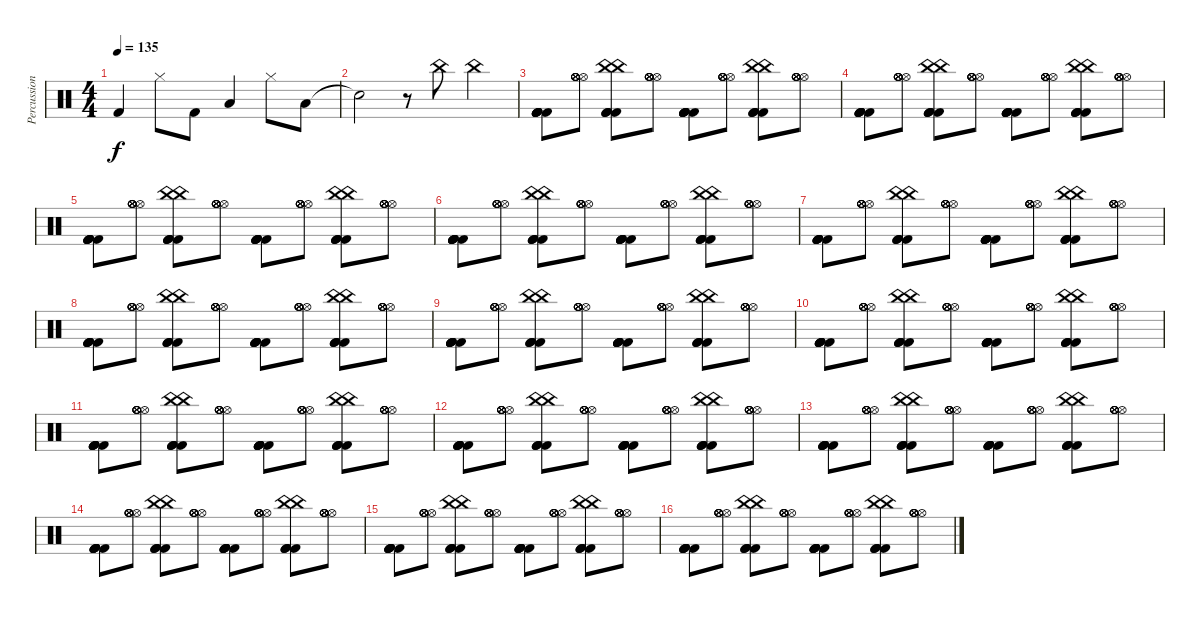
\track ("Percussion" "Percussion") {instrument percussion}
\staff {score}
\articulation defaults
\ts (4 4)
\tempo 135
\clef neutral
\ks c "Kick (hit) 2".4{dy f} "Hi-Hat (closed)".8 "Kick (hit) 2".8 "Low Tom (hit)".4 "Hi-Hat (closed)".8 "Low Floor Tom (hit)".8
|
"Snare (hit)"{t}.2 r.8 "China (hit)".8 "China (hit)".4 |
("Kick (hit) 2" "Kick (hit) 2" "Kick (hit) 2" "Kick (hit) 2" "Kick (hit) 2" "Kick (hit) 2").8 ("Hi-Hat (open)" "Hi-Hat (open)" "Hi-Hat (open)" "Hi-Hat (open)" "Hi-Hat (open)" "Hi-Hat (open)").8 ("China (hit)" "China (hit)" "Kick (hit) 2" "Kick (hit) 2" "Kick (hit) 2" "Kick (hit) 2").8 ("Hi-Hat (open)" "Hi-Hat (open)" "Hi-Hat (open)" "Hi-Hat (open)" "Hi-Hat (open)" "Hi-Hat (open)").8 ("Kick (hit) 2" "Kick (hit) 2" "Kick (hit) 2" "Kick (hit) 2" "Kick (hit) 2" "Kick (hit) 2").8 ("Hi-Hat (open)" "Hi-Hat (open)" "Hi-Hat (open)" "Hi-Hat (open)" "Hi-Hat (open)" "Hi-Hat (open)").8 ("China (hit)" "China (hit)" "Kick (hit) 2" "Kick (hit) 2" "Kick (hit) 2" "Kick (hit) 2").8 ("Hi-Hat (open)" "Hi-Hat (open)" "Hi-Hat (open)" "Hi-Hat (open)" "Hi-Hat (open)" "Hi-Hat (open)").8 |
("Kick (hit) 2" "Kick (hit) 2" "Kick (hit) 2" "Kick (hit) 2" "Kick (hit) 2" "Kick (hit) 2").8 ("Hi-Hat (open)" "Hi-Hat (open)" "Hi-Hat (open)" "Hi-Hat (open)" "Hi-Hat (open)" "Hi-Hat (open)").8 ("China (hit)" "China (hit)" "Kick (hit) 2" "Kick (hit) 2" "Kick (hit) 2" "Kick (hit) 2").8 ("Hi-Hat (open)" "Hi-Hat (open)" "Hi-Hat (open)" "Hi-Hat (open)" "Hi-Hat (open)" "Hi-Hat (open)").8 ("Kick (hit) 2" "Kick (hit) 2" "Kick (hit) 2" "Kick (hit) 2" "Kick (hit) 2" "Kick (hit) 2").8 ("Hi-Hat (open)" "Hi-Hat (open)" "Hi-Hat (open)" "Hi-Hat (open)" "Hi-Hat (open)" "Hi-Hat (open)").8 ("China (hit)" "China (hit)" "Kick (hit) 2" "Kick (hit) 2" "Kick (hit) 2" "Kick (hit) 2").8 ("Hi-Hat (open)" "Hi-Hat (open)" "Hi-Hat (open)" "Hi-Hat (open)" "Hi-Hat (open)" "Hi-Hat (open)").8 |
("Kick (hit) 2" "Kick (hit) 2" "Kick (hit) 2" "Kick (hit) 2" "Kick (hit) 2" "Kick (hit) 2").8 ("Hi-Hat (open)" "Hi-Hat (open)" "Hi-Hat (open)" "Hi-Hat (open)" "Hi-Hat (open)" "Hi-Hat (open)").8 ("China (hit)" "China (hit)" "Kick (hit) 2" "Kick (hit) 2" "Kick (hit) 2" "Kick (hit) 2").8 ("Hi-Hat (open)" "Hi-Hat (open)" "Hi-Hat (open)" "Hi-Hat (open)" "Hi-Hat (open)" "Hi-Hat (open)").8 ("Kick (hit) 2" "Kick (hit) 2" "Kick (hit) 2" "Kick (hit) 2" "Kick (hit) 2" "Kick (hit) 2").8 ("Hi-Hat (open)" "Hi-Hat (open)" "Hi-Hat (open)" "Hi-Hat (open)" "Hi-Hat (open)" "Hi-Hat (open)").8 ("China (hit)" "China (hit)" "Kick (hit) 2" "Kick (hit) 2" "Kick (hit) 2" "Kick (hit) 2").8 ("Hi-Hat (open)" "Hi-Hat (open)" "Hi-Hat (open)" "Hi-Hat (open)" "Hi-Hat (open)" "Hi-Hat (open)").8 |
("Kick (hit) 2" "Kick (hit) 2" "Kick (hit) 2" "Kick (hit) 2" "Kick (hit) 2" "Kick (hit) 2").8 ("Hi-Hat (open)" "Hi-Hat (open)" "Hi-Hat (open)" "Hi-Hat (open)" "Hi-Hat (open)" "Hi-Hat (open)").8 ("China (hit)" "China (hit)" "Kick (hit) 2" "Kick (hit) 2" "Kick (hit) 2" "Kick (hit) 2").8 ("Hi-Hat (open)" "Hi-Hat (open)" "Hi-Hat (open)" "Hi-Hat (open)" "Hi-Hat (open)" "Hi-Hat (open)").8 ("Kick (hit) 2" "Kick (hit) 2" "Kick (hit) 2" "Kick (hit) 2" "Kick (hit) 2" "Kick (hit) 2").8 ("Hi-Hat (open)" "Hi-Hat (open)" "Hi-Hat (open)" "Hi-Hat (open)" "Hi-Hat (open)" "Hi-Hat (open)").8 ("China (hit)" "China (hit)" "Kick (hit) 2" "Kick (hit) 2" "Kick (hit) 2" "Kick (hit) 2").8 ("Hi-Hat (open)" "Hi-Hat (open)" "Hi-Hat (open)" "Hi-Hat (open)" "Hi-Hat (open)" "Hi-Hat (open)").8 |
("Kick (hit) 2" "Kick (hit) 2" "Kick (hit) 2" "Kick (hit) 2" "Kick (hit) 2" "Kick (hit) 2").8 ("Hi-Hat (open)" "Hi-Hat (open)" "Hi-Hat (open)" "Hi-Hat (open)" "Hi-Hat (open)" "Hi-Hat (open)").8 ("China (hit)" "China (hit)" "Kick (hit) 2" "Kick (hit) 2" "Kick (hit) 2" "Kick (hit) 2").8 ("Hi-Hat (open)" "Hi-Hat (open)" "Hi-Hat (open)" "Hi-Hat (open)" "Hi-Hat (open)" "Hi-Hat (open)").8 ("Kick (hit) 2" "Kick (hit) 2" "Kick (hit) 2" "Kick (hit) 2" "Kick (hit) 2" "Kick (hit) 2").8 ("Hi-Hat (open)" "Hi-Hat (open)" "Hi-Hat (open)" "Hi-Hat (open)" "Hi-Hat (open)" "Hi-Hat (open)").8 ("China (hit)" "China (hit)" "Kick (hit) 2" "Kick (hit) 2" "Kick (hit) 2" "Kick (hit) 2").8 ("Hi-Hat (open)" "Hi-Hat (open)" "Hi-Hat (open)" "Hi-Hat (open)" "Hi-Hat (open)" "Hi-Hat (open)").8 |
("Kick (hit) 2" "Kick (hit) 2" "Kick (hit) 2" "Kick (hit) 2" "Kick (hit) 2" "Kick (hit) 2").8 ("Hi-Hat (open)" "Hi-Hat (open)" "Hi-Hat (open)" "Hi-Hat (open)" "Hi-Hat (open)" "Hi-Hat (open)").8 ("China (hit)" "China (hit)" "Kick (hit) 2" "Kick (hit) 2" "Kick (hit) 2" "Kick (hit) 2").8 ("Hi-Hat (open)" "Hi-Hat (open)" "Hi-Hat (open)" "Hi-Hat (open)" "Hi-Hat (open)" "Hi-Hat (open)").8 ("Kick (hit) 2" "Kick (hit) 2" "Kick (hit) 2" "Kick (hit) 2" "Kick (hit) 2" "Kick (hit) 2").8 ("Hi-Hat (open)" "Hi-Hat (open)" "Hi-Hat (open)" "Hi-Hat (open)" "Hi-Hat (open)" "Hi-Hat (open)").8 ("China (hit)" "China (hit)" "Kick (hit) 2" "Kick (hit) 2" "Kick (hit) 2" "Kick (hit) 2").8 ("Hi-Hat (open)" "Hi-Hat (open)" "Hi-Hat (open)" "Hi-Hat (open)" "Hi-Hat (open)" "Hi-Hat (open)").8 |
("Kick (hit) 2" "Kick (hit) 2" "Kick (hit) 2" "Kick (hit) 2" "Kick (hit) 2" "Kick (hit) 2").8 ("Hi-Hat (open)" "Hi-Hat (open)" "Hi-Hat (open)" "Hi-Hat (open)" "Hi-Hat (open)" "Hi-Hat (open)").8 ("China (hit)" "China (hit)" "Kick (hit) 2" "Kick (hit) 2" "Kick (hit) 2" "Kick (hit) 2").8 ("Hi-Hat (open)" "Hi-Hat (open)" "Hi-Hat (open)" "Hi-Hat (open)" "Hi-Hat (open)" "Hi-Hat (open)").8 ("Kick (hit) 2" "Kick (hit) 2" "Kick (hit) 2" "Kick (hit) 2" "Kick (hit) 2" "Kick (hit) 2").8 ("Hi-Hat (open)" "Hi-Hat (open)" "Hi-Hat (open)" "Hi-Hat (open)" "Hi-Hat (open)" "Hi-Hat (open)").8 ("China (hit)" "China (hit)" "Kick (hit) 2" "Kick (hit) 2" "Kick (hit) 2" "Kick (hit) 2").8 ("Hi-Hat (open)" "Hi-Hat (open)" "Hi-Hat (open)" "Hi-Hat (open)" "Hi-Hat (open)" "Hi-Hat (open)").8 |
("Kick (hit) 2" "Kick (hit) 2" "Kick (hit) 2" "Kick (hit) 2" "Kick (hit) 2" "Kick (hit) 2").8 ("Hi-Hat (open)" "Hi-Hat (open)" "Hi-Hat (open)" "Hi-Hat (open)" "Hi-Hat (open)" "Hi-Hat (open)").8 ("China (hit)" "China (hit)" "Kick (hit) 2" "Kick (hit) 2" "Kick (hit) 2" "Kick (hit) 2").8 ("Hi-Hat (open)" "Hi-Hat (open)" "Hi-Hat (open)" "Hi-Hat (open)" "Hi-Hat (open)" "Hi-Hat (open)").8 ("Kick (hit) 2" "Kick (hit) 2" "Kick (hit) 2" "Kick (hit) 2" "Kick (hit) 2" "Kick (hit) 2").8 ("Hi-Hat (open)" "Hi-Hat (open)" "Hi-Hat (open)" "Hi-Hat (open)" "Hi-Hat (open)" "Hi-Hat (open)").8 ("China (hit)" "China (hit)" "Kick (hit) 2" "Kick (hit) 2" "Kick (hit) 2" "Kick (hit) 2").8 ("Hi-Hat (open)" "Hi-Hat (open)" "Hi-Hat (open)" "Hi-Hat (open)" "Hi-Hat (open)" "Hi-Hat (open)").8 |
("Kick (hit) 2" "Kick (hit) 2" "Kick (hit) 2" "Kick (hit) 2" "Kick (hit) 2" "Kick (hit) 2").8 ("Hi-Hat (open)" "Hi-Hat (open)" "Hi-Hat (open)" "Hi-Hat (open)" "Hi-Hat (open)" "Hi-Hat (open)").8 ("China (hit)" "China (hit)" "Kick (hit) 2" "Kick (hit) 2" "Kick (hit) 2" "Kick (hit) 2").8 ("Hi-Hat (open)" "Hi-Hat (open)" "Hi-Hat (open)" "Hi-Hat (open)" "Hi-Hat (open)" "Hi-Hat (open)").8 ("Kick (hit) 2" "Kick (hit) 2" "Kick (hit) 2" "Kick (hit) 2" "Kick (hit) 2" "Kick (hit) 2").8 ("Hi-Hat (open)" "Hi-Hat (open)" "Hi-Hat (open)" "Hi-Hat (open)" "Hi-Hat (open)" "Hi-Hat (open)").8 ("China (hit)" "China (hit)" "Kick (hit) 2" "Kick (hit) 2" "Kick (hit) 2" "Kick (hit) 2").8 ("Hi-Hat (open)" "Hi-Hat (open)" "Hi-Hat (open)" "Hi-Hat (open)" "Hi-Hat (open)" "Hi-Hat (open)").8 |
("Kick (hit) 2" "Kick (hit) 2" "Kick (hit) 2" "Kick (hit) 2" "Kick (hit) 2" "Kick (hit) 2").8 ("Hi-Hat (open)" "Hi-Hat (open)" "Hi-Hat (open)" "Hi-Hat (open)" "Hi-Hat (open)" "Hi-Hat (open)").8 ("China (hit)" "China (hit)" "Kick (hit) 2" "Kick (hit) 2" "Kick (hit) 2" "Kick (hit) 2").8 ("Hi-Hat (open)" "Hi-Hat (open)" "Hi-Hat (open)" "Hi-Hat (open)" "Hi-Hat (open)" "Hi-Hat (open)").8 ("Kick (hit) 2" "Kick (hit) 2" "Kick (hit) 2" "Kick (hit) 2" "Kick (hit) 2" "Kick (hit) 2").8 ("Hi-Hat (open)" "Hi-Hat (open)" "Hi-Hat (open)" "Hi-Hat (open)" "Hi-Hat (open)" "Hi-Hat (open)").8 ("China (hit)" "China (hit)" "Kick (hit) 2" "Kick (hit) 2" "Kick (hit) 2" "Kick (hit) 2").8 ("Hi-Hat (open)" "Hi-Hat (open)" "Hi-Hat (open)" "Hi-Hat (open)" "Hi-Hat (open)" "Hi-Hat (open)").8 |
("Kick (hit) 2" "Kick (hit) 2" "Kick (hit) 2" "Kick (hit) 2" "Kick (hit) 2" "Kick (hit) 2").8 ("Hi-Hat (open)" "Hi-Hat (open)" "Hi-Hat (open)" "Hi-Hat (open)" "Hi-Hat (open)" "Hi-Hat (open)").8 ("China (hit)" "China (hit)" "Kick (hit) 2" "Kick (hit) 2" "Kick (hit) 2" "Kick (hit) 2").8 ("Hi-Hat (open)" "Hi-Hat (open)" "Hi-Hat (open)" "Hi-Hat (open)" "Hi-Hat (open)" "Hi-Hat (open)").8 ("Kick (hit) 2" "Kick (hit) 2" "Kick (hit) 2" "Kick (hit) 2" "Kick (hit) 2" "Kick (hit) 2").8 ("Hi-Hat (open)" "Hi-Hat (open)" "Hi-Hat (open)" "Hi-Hat (open)" "Hi-Hat (open)" "Hi-Hat (open)").8 ("China (hit)" "China (hit)" "Kick (hit) 2" "Kick (hit) 2" "Kick (hit) 2" "Kick (hit) 2").8 ("Hi-Hat (open)" "Hi-Hat (open)" "Hi-Hat (open)" "Hi-Hat (open)" "Hi-Hat (open)" "Hi-Hat (open)").8 |
("Kick (hit) 2" "Kick (hit) 2" "Kick (hit) 2" "Kick (hit) 2" "Kick (hit) 2" "Kick (hit) 2").8 ("Hi-Hat (open)" "Hi-Hat (open)" "Hi-Hat (open)" "Hi-Hat (open)" "Hi-Hat (open)" "Hi-Hat (open)").8 ("China (hit)" "China (hit)" "Kick (hit) 2" "Kick (hit) 2" "Kick (hit) 2" "Kick (hit) 2").8 ("Hi-Hat (open)" "Hi-Hat (open)" "Hi-Hat (open)" "Hi-Hat (open)" "Hi-Hat (open)" "Hi-Hat (open)").8 ("Kick (hit) 2" "Kick (hit) 2" "Kick (hit) 2" "Kick (hit) 2" "Kick (hit) 2" "Kick (hit) 2").8 ("Hi-Hat (open)" "Hi-Hat (open)" "Hi-Hat (open)" "Hi-Hat (open)" "Hi-Hat (open)" "Hi-Hat (open)").8 ("China (hit)" "China (hit)" "Kick (hit) 2" "Kick (hit) 2" "Kick (hit) 2" "Kick (hit) 2").8 ("Hi-Hat (open)" "Hi-Hat (open)" "Hi-Hat (open)" "Hi-Hat (open)" "Hi-Hat (open)" "Hi-Hat (open)").8 |
("Kick (hit) 2" "Kick (hit) 2" "Kick (hit) 2" "Kick (hit) 2" "Kick (hit) 2" "Kick (hit) 2").8 ("Hi-Hat (open)" "Hi-Hat (open)" "Hi-Hat (open)" "Hi-Hat (open)" "Hi-Hat (open)" "Hi-Hat (open)").8 ("China (hit)" "China (hit)" "Kick (hit) 2" "Kick (hit) 2" "Kick (hit) 2" "Kick (hit) 2").8 ("Hi-Hat (open)" "Hi-Hat (open)" "Hi-Hat (open)" "Hi-Hat (open)" "Hi-Hat (open)" "Hi-Hat (open)").8 ("Kick (hit) 2" "Kick (hit) 2" "Kick (hit) 2" "Kick (hit) 2" "Kick (hit) 2" "Kick (hit) 2").8 ("Hi-Hat (open)" "Hi-Hat (open)" "Hi-Hat (open)" "Hi-Hat (open)" "Hi-Hat (open)" "Hi-Hat (open)").8 ("China (hit)" "China (hit)" "Kick (hit) 2" "Kick (hit) 2" "Kick (hit) 2" "Kick (hit) 2").8 ("Hi-Hat (open)" "Hi-Hat (open)" "Hi-Hat (open)" "Hi-Hat (open)" "Hi-Hat (open)" "Hi-Hat (open)").8 |
("Kick (hit) 2" "Kick (hit) 2" "Kick (hit) 2" "Kick (hit) 2" "Kick (hit) 2" "Kick (hit) 2").8 ("Hi-Hat (open)" "Hi-Hat (open)" "Hi-Hat (open)" "Hi-Hat (open)" "Hi-Hat (open)" "Hi-Hat (open)").8 ("China (hit)" "China (hit)" "Kick (hit) 2" "Kick (hit) 2" "Kick (hit) 2" "Kick (hit) 2").8 ("Hi-Hat (open)" "Hi-Hat (open)" "Hi-Hat (open)" "Hi-Hat (open)" "Hi-Hat (open)" "Hi-Hat (open)").8 ("Kick (hit) 2" "Kick (hit) 2" "Kick (hit) 2" "Kick (hit) 2" "Kick (hit) 2" "Kick (hit) 2").8 ("Hi-Hat (open)" "Hi-Hat (open)" "Hi-Hat (open)" "Hi-Hat (open)" "Hi-Hat (open)" "Hi-Hat (open)").8 ("China (hit)" "China (hit)" "Kick (hit) 2" "Kick (hit) 2" "Kick (hit) 2" "Kick (hit) 2").8 ("Hi-Hat (open)" "Hi-Hat (open)" "Hi-Hat (open)" "Hi-Hat (open)" "Hi-Hat (open)" "Hi-Hat (open)").8
